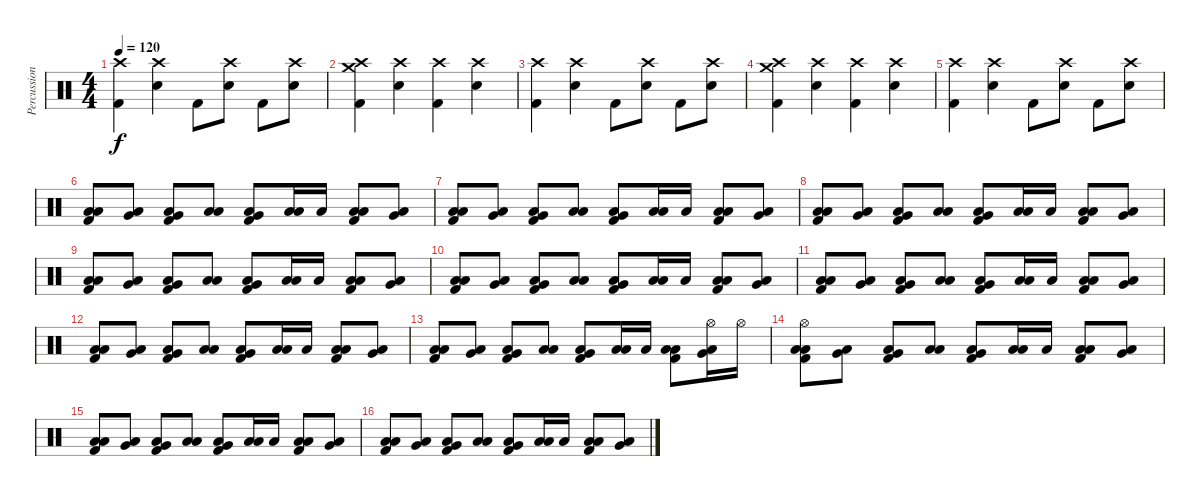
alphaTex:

\track ("Percussion" "Percussion") {instrument percussion}
\staff {score}
\articulation defaults
\ts (4 4)
\tempo 120
\clef neutral
\ks c
("Kick (hit) 2" "Crash high (hit)").4{dy f} ("Snare (hit) 2" "Crash high (hit)").4 "Kick (hit) 2".8 ("Snare (hit) 2" "Crash high (hit)").8 "Kick (hit) 2".8 ("Snare (hit) 2" "Crash high (hit)").8 |
("Kick (hit) 2" "Crash high (hit)" "Crash medium (hit)").4 ("Snare (hit) 2" "Crash high (hit)").4 ("Kick (hit) 2" "Crash high (hit)").4 ("Snare (hit) 2" "Crash high (hit)").4 |
("Kick (hit) 2" "Crash high (hit)").4 ("Snare (hit) 2" "Crash high (hit)").4 "Kick (hit) 2".8 ("Snare (hit) 2" "Crash high (hit)").8 "Kick (hit) 2".8 ("Snare (hit) 2" "Crash high (hit)").8 |
("Kick (hit) 2" "Crash high (hit)" "Crash medium (hit)").4 ("Snare (hit) 2" "Crash high (hit)").4 ("Kick (hit) 2" "Crash high (hit)").4 ("Snare (hit) 2" "Crash high (hit)").4 |
("Kick (hit) 2" "Crash high (hit)").4 ("Snare (hit) 2" "Crash high (hit)").4 "Kick (hit) 2".8 ("Snare (hit) 2" "Crash high (hit)").8 "Kick (hit) 2".8 ("Snare (hit) 2" "Crash high (hit)").8 |
("Kick (hit) 2" "Low Floor Tom (hit)" "Low Tom (hit)").8 ("Low Floor Tom (hit)" "Very Low Tom (hit)").8 ("Kick (hit) 2" "Low Floor Tom (hit)" "Very Low Tom (hit)").8 ("Low Floor Tom (hit)" "Low Tom (hit)").8 ("Kick (hit) 2" "Low Floor Tom (hit)" "Very Low Tom (hit)").8 ("Low Floor Tom (hit)" "Low Tom (hit)").16 "Low Tom (hit)".16 ("Kick (hit) 2" "Low Floor Tom (hit)" "Low Tom (hit)").8 ("Low Floor Tom (hit)" "Very Low Tom (hit)").8 |
("Kick (hit) 2" "Low Floor Tom (hit)" "Low Tom (hit)").8 ("Low Floor Tom (hit)" "Very Low Tom (hit)").8 ("Kick (hit) 2" "Low Floor Tom (hit)" "Very Low Tom (hit)").8 ("Low Floor Tom (hit)" "Low Tom (hit)").8 ("Kick (hit) 2" "Low Floor Tom (hit)" "Very Low Tom (hit)").8 ("Low Floor Tom (hit)" "Low Tom (hit)").16 "Low Tom (hit)".16 ("Kick (hit) 2" "Low Floor Tom (hit)" "Low Tom (hit)").8 ("Low Floor Tom (hit)" "Very Low Tom (hit)").8 |
("Kick (hit) 2" "Low Floor Tom (hit)" "Low Tom (hit)").8 ("Low Floor Tom (hit)" "Very Low Tom (hit)").8 ("Kick (hit) 2" "Low Floor Tom (hit)" "Very Low Tom (hit)").8 ("Low Floor Tom (hit)" "Low Tom (hit)").8 ("Kick (hit) 2" "Low Floor Tom (hit)" "Very Low Tom (hit)").8 ("Low Floor Tom (hit)" "Low Tom (hit)").16 "Low Tom (hit)".16 ("Kick (hit) 2" "Low Floor Tom (hit)" "Low Tom (hit)").8 ("Low Floor Tom (hit)" "Very Low Tom (hit)").8 |
("Kick (hit) 2" "Low Floor Tom (hit)" "Low Tom (hit)").8 ("Low Floor Tom (hit)" "Very Low Tom (hit)").8 ("Kick (hit) 2" "Low Floor Tom (hit)" "Very Low Tom (hit)").8 ("Low Floor Tom (hit)" "Low Tom (hit)").8 ("Kick (hit) 2" "Low Floor Tom (hit)" "Very Low Tom (hit)").8 ("Low Floor Tom (hit)" "Low Tom (hit)").16 "Low Tom (hit)".16 ("Kick (hit) 2" "Low Floor Tom (hit)" "Low Tom (hit)").8 ("Low Floor Tom (hit)" "Very Low Tom (hit)").8 |
("Kick (hit) 2" "Low Floor Tom (hit)" "Low Tom (hit)").8 ("Low Floor Tom (hit)" "Very Low Tom (hit)").8 ("Kick (hit) 2" "Low Floor Tom (hit)" "Very Low Tom (hit)").8 ("Low Floor Tom (hit)" "Low Tom (hit)").8 ("Kick (hit) 2" "Low Floor Tom (hit)" "Very Low Tom (hit)").8 ("Low Floor Tom (hit)" "Low Tom (hit)").16 "Low Tom (hit)".16 ("Kick (hit) 2" "Low Floor Tom (hit)" "Low Tom (hit)").8 ("Low Floor Tom (hit)" "Very Low Tom (hit)").8 |
("Kick (hit) 2" "Low Floor Tom (hit)" "Low Tom (hit)").8 ("Low Floor Tom (hit)" "Very Low Tom (hit)").8 ("Kick (hit) 2" "Low Floor Tom (hit)" "Very Low Tom (hit)").8 ("Low Floor Tom (hit)" "Low Tom (hit)").8 ("Kick (hit) 2" "Low Floor Tom (hit)" "Very Low Tom (hit)").8 ("Low Floor Tom (hit)" "Low Tom (hit)").16 "Low Tom (hit)".16 ("Kick (hit) 2" "Low Floor Tom (hit)" "Low Tom (hit)").8 ("Low Floor Tom (hit)" "Very Low Tom (hit)").8 |
("Kick (hit) 2" "Low Floor Tom (hit)" "Low Tom (hit)").8 ("Low Floor Tom (hit)" "Very Low Tom (hit)").8 ("Kick (hit) 2" "Low Floor Tom (hit)" "Very Low Tom (hit)").8 ("Low Floor Tom (hit)" "Low Tom (hit)").8 ("Kick (hit) 2" "Low Floor Tom (hit)" "Very Low Tom (hit)").8 ("Low Floor Tom (hit)" "Low Tom (hit)").16 "Low Tom (hit)".16 ("Kick (hit) 2" "Low Floor Tom (hit)" "Low Tom (hit)").8 ("Low Floor Tom (hit)" "Very Low Tom (hit)").8 |
("Kick (hit) 2" "Low Floor Tom (hit)" "Low Tom (hit)").8 ("Low Floor Tom (hit)" "Very Low Tom (hit)").8 ("Kick (hit) 2" "Low Floor Tom (hit)" "Very Low Tom (hit)").8 ("Low Floor Tom (hit)" "Low Tom (hit)").8 ("Kick (hit) 2" "Low Floor Tom (hit)" "Very Low Tom (hit)").8 ("Low Floor Tom (hit)" "Low Tom (hit)").16 "Low Tom (hit)".16 ("Kick (hit) 2" "Low Floor Tom (hit)" "Low Tom (hit)").8 ("Low Floor Tom (hit)" "Very Low Tom (hit)" "Hi-Hat (open)").16 "Hi-Hat (open)".16 |
("Kick (hit) 2" "Low Floor Tom (hit)" "Low Tom (hit)" "Hi-Hat (open)").8 ("Low Floor Tom (hit)" "Very Low Tom (hit)").8 ("Kick (hit) 2" "Low Floor Tom (hit)" "Very Low Tom (hit)").8 ("Low Floor Tom (hit)" "Low Tom (hit)").8 ("Kick (hit) 2" "Low Floor Tom (hit)" "Very Low Tom (hit)").8 ("Low Floor Tom (hit)" "Low Tom (hit)").16 "Low Tom (hit)".16 ("Kick (hit) 2" "Low Floor Tom (hit)" "Low Tom (hit)").8 ("Low Floor Tom (hit)" "Very Low Tom (hit)").8 |
("Kick (hit) 2" "Low Floor Tom (hit)" "Low Tom (hit)").8 ("Low Floor Tom (hit)" "Very Low Tom (hit)").8 ("Kick (hit) 2" "Low Floor Tom (hit)" "Very Low Tom (hit)").8 ("Low Floor Tom (hit)" "Low Tom (hit)").8 ("Kick (hit) 2" "Low Floor Tom (hit)" "Very Low Tom (hit)").8 ("Low Floor Tom (hit)" "Low Tom (hit)").16 "Low Tom (hit)".16 ("Kick (hit) 2" "Low Floor Tom (hit)" "Low Tom (hit)").8 ("Low Floor Tom (hit)" "Very Low Tom (hit)").8 |
("Kick (hit) 2" "Low Floor Tom (hit)" "Low Tom (hit)").8 ("Low Floor Tom (hit)" "Very Low Tom (hit)").8 ("Kick (hit) 2" "Low Floor Tom (hit)" "Very Low Tom (hit)").8 ("Low Floor Tom (hit)" "Low Tom (hit)").8 ("Kick (hit) 2" "Low Floor Tom (hit)" "Very Low Tom (hit)").8 ("Low Floor Tom (hit)" "Low Tom (hit)").16 "Low Tom (hit)".16 ("Kick (hit) 2" "Low Floor Tom (hit)" "Low Tom (hit)").8 ("Low Floor Tom (hit)" "Very Low Tom (hit)").8
